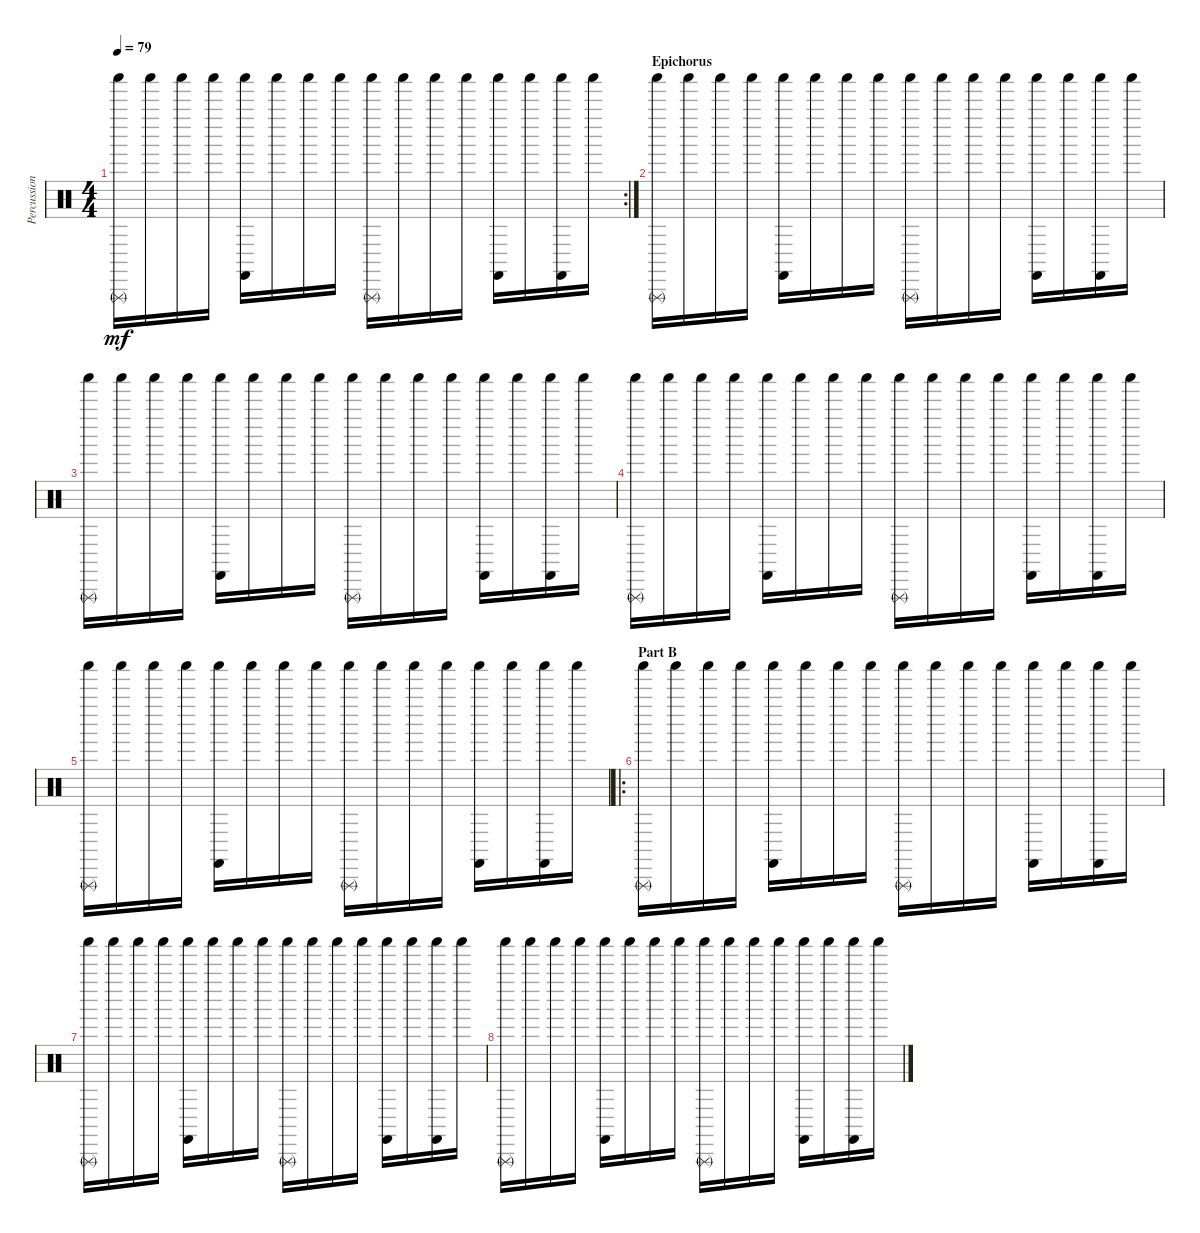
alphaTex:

\track ("Percussion" "Percussion") {instrument percussion}
\staff {score}
\articulation defaults
\rc 2
\ts (4 4)
\tempo 79
\clef neutral
\ks c
("Shaker (hit)" "Triangle (rnute)").16{dy mf} "Shaker (hit)".16 "Shaker (hit)".16 "Shaker (hit)".16 ("Shaker (hit)" "Castanets (hit)").16 "Shaker (hit)".16 "Shaker (hit)".16 "Shaker (hit)".16 ("Shaker (hit)" "Triangle (rnute)").16 "Shaker (hit)".16 "Shaker (hit)".16 "Shaker (hit)".16 ("Shaker (hit)" "Castanets (hit)").16 "Shaker (hit)".16 ("Shaker (hit)" "Castanets (hit)").16 "Shaker (hit)".16 |
\section ("" "Epichorus")
("Shaker (hit)" "Triangle (rnute)").16 "Shaker (hit)".16 "Shaker (hit)".16 "Shaker (hit)".16 ("Shaker (hit)" "Castanets (hit)").16 "Shaker (hit)".16 "Shaker (hit)".16 "Shaker (hit)".16 ("Shaker (hit)" "Triangle (rnute)").16 "Shaker (hit)".16 "Shaker (hit)".16 "Shaker (hit)".16 ("Shaker (hit)" "Castanets (hit)").16 "Shaker (hit)".16 ("Shaker (hit)" "Castanets (hit)").16 "Shaker (hit)".16 |
("Shaker (hit)" "Triangle (rnute)").16 "Shaker (hit)".16 "Shaker (hit)".16 "Shaker (hit)".16 ("Shaker (hit)" "Castanets (hit)").16 "Shaker (hit)".16 "Shaker (hit)".16 "Shaker (hit)".16 ("Shaker (hit)" "Triangle (rnute)").16 "Shaker (hit)".16 "Shaker (hit)".16 "Shaker (hit)".16 ("Shaker (hit)" "Castanets (hit)").16 "Shaker (hit)".16 ("Shaker (hit)" "Castanets (hit)").16 "Shaker (hit)".16 |
("Shaker (hit)" "Triangle (rnute)").16 "Shaker (hit)".16 "Shaker (hit)".16 "Shaker (hit)".16 ("Shaker (hit)" "Castanets (hit)").16 "Shaker (hit)".16 "Shaker (hit)".16 "Shaker (hit)".16 ("Shaker (hit)" "Triangle (rnute)").16 "Shaker (hit)".16 "Shaker (hit)".16 "Shaker (hit)".16 ("Shaker (hit)" "Castanets (hit)").16 "Shaker (hit)".16 ("Shaker (hit)" "Castanets (hit)").16 "Shaker (hit)".16 |
("Shaker (hit)" "Triangle (rnute)").16 "Shaker (hit)".16 "Shaker (hit)".16 "Shaker (hit)".16 ("Shaker (hit)" "Castanets (hit)").16 "Shaker (hit)".16 "Shaker (hit)".16 "Shaker (hit)".16 ("Shaker (hit)" "Triangle (rnute)").16 "Shaker (hit)".16 "Shaker (hit)".16 "Shaker (hit)".16 ("Shaker (hit)" "Castanets (hit)").16 "Shaker (hit)".16 ("Shaker (hit)" "Castanets (hit)").16 "Shaker (hit)".16 |
\ro
\section ("" "Part B")
("Shaker (hit)" "Triangle (rnute)").16 "Shaker (hit)".16 "Shaker (hit)".16 "Shaker (hit)".16 ("Shaker (hit)" "Castanets (hit)").16 "Shaker (hit)".16 "Shaker (hit)".16 "Shaker (hit)".16 ("Shaker (hit)" "Triangle (rnute)").16 "Shaker (hit)".16 "Shaker (hit)".16 "Shaker (hit)".16 ("Shaker (hit)" "Castanets (hit)").16 "Shaker (hit)".16 ("Shaker (hit)" "Castanets (hit)").16 "Shaker (hit)".16 |
("Shaker (hit)" "Triangle (rnute)").16 "Shaker (hit)".16 "Shaker (hit)".16 "Shaker (hit)".16 ("Shaker (hit)" "Castanets (hit)").16 "Shaker (hit)".16 "Shaker (hit)".16 "Shaker (hit)".16 ("Shaker (hit)" "Triangle (rnute)").16 "Shaker (hit)".16 "Shaker (hit)".16 "Shaker (hit)".16 ("Shaker (hit)" "Castanets (hit)").16 "Shaker (hit)".16 ("Shaker (hit)" "Castanets (hit)").16 "Shaker (hit)".16 |
("Shaker (hit)" "Triangle (rnute)").16 "Shaker (hit)".16 "Shaker (hit)".16 "Shaker (hit)".16 ("Shaker (hit)" "Castanets (hit)").16 "Shaker (hit)".16 "Shaker (hit)".16 "Shaker (hit)".16 ("Shaker (hit)" "Triangle (rnute)").16 "Shaker (hit)".16 "Shaker (hit)".16 "Shaker (hit)".16 ("Shaker (hit)" "Castanets (hit)").16 "Shaker (hit)".16 ("Shaker (hit)" "Castanets (hit)").16 "Shaker (hit)".16
